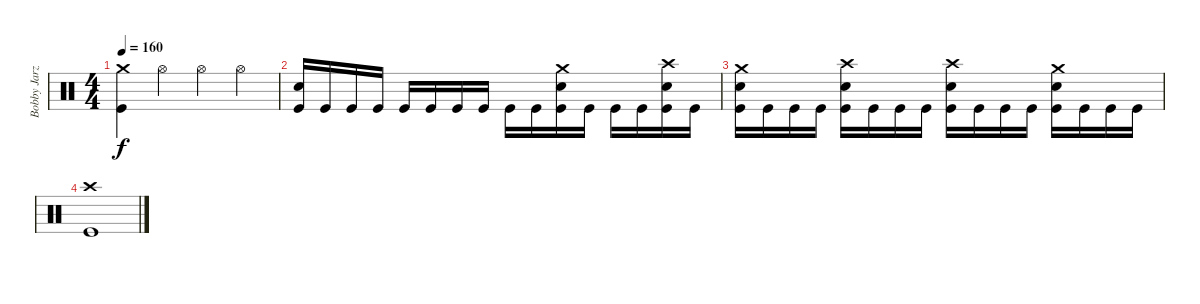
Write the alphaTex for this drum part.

\track ("Bobby Jarzombek" "Bobby Jarz") {instrument percussion}
\staff {score}
\articulation defaults
\ts (4 4)
\tempo 160
\clef neutral
\ks c
("Crash medium (hit)" "Kick (hit)").4{dy f} "Hi-Hat (open)".4 "Hi-Hat (open)".4 "Hi-Hat (open)".4 |
("Electric Snare (hit)" "Kick (hit)").16 "Kick (hit)".16 "Kick (hit)".16 "Kick (hit)".16 "Kick (hit)".16 "Kick (hit)".16 "Kick (hit)".16 "Kick (hit)".16 "Kick (hit)".16 "Kick (hit)".16 ("Crash medium (hit)" "Electric Snare (hit)" "Kick (hit)").16 "Kick (hit)".16 "Kick (hit)".16 "Kick (hit)".16 ("Crash high (hit)" "Electric Snare (hit)" "Kick (hit)").16 "Kick (hit)".16 |
("Crash medium (hit)" "Electric Snare (hit)" "Kick (hit)").16 "Kick (hit)".16 "Kick (hit)".16 "Kick (hit)".16 ("Crash high (hit)" "Electric Snare (hit)" "Kick (hit)").16 "Kick (hit)".16 "Kick (hit)".16 "Kick (hit)".16 ("Crash high (hit)" "Electric Snare (hit)" "Kick (hit)").16 "Kick (hit)".16 "Kick (hit)".16 "Kick (hit)".16 ("Crash medium (hit)" "Electric Snare (hit)" "Kick (hit)").16 "Kick (hit)".16 "Kick (hit)".16 "Kick (hit)".16 |
("Crash high (hit)" "Kick (hit)").1
